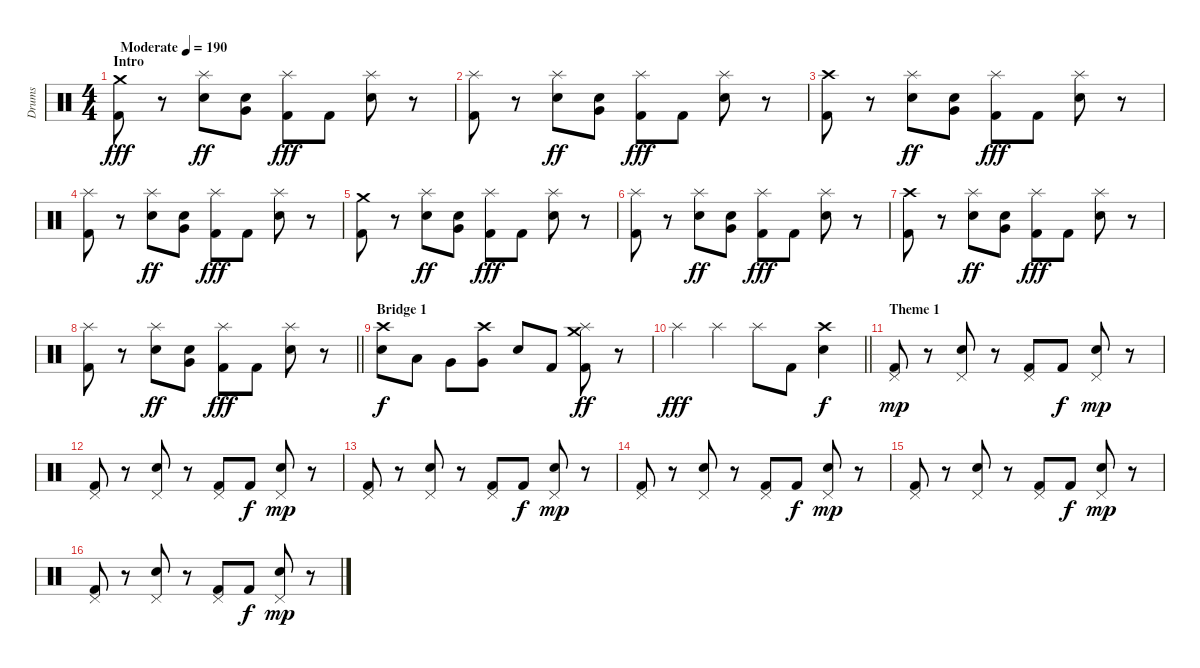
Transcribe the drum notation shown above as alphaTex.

\track ("Drums" "Drums") {instrument percussion}
\staff {score}
\articulation defaults
\ts (4 4)
\section ("" "Intro")
\tempo (190 "Moderate")
\clef neutral
\ks c
("Crash medium (hit)" "Kick (hit) 2").8{dy fff} r.8 ("Splash (hit)" "Electric Snare (hit)").8{dy ff} ("Electric Snare (hit)" "Very Low Tom (hit)").8 ("Splash (hit)" "Kick (hit) 2").8{dy fff} "Kick (hit) 2".8 ("Splash (hit)" "Electric Snare (hit)").8 r.8 |
("Splash (hit)" "Kick (hit) 2").8 r.8 ("Splash (hit)" "Electric Snare (hit)").8{dy ff} ("Electric Snare (hit)" "Very Low Tom (hit)").8 ("Splash (hit)" "Kick (hit) 2").8{dy fff} "Kick (hit) 2".8 ("Splash (hit)" "Electric Snare (hit)").8 r.8 |
("Crash high (hit)" "Kick (hit) 2").8 r.8 ("Splash (hit)" "Electric Snare (hit)").8{dy ff} ("Electric Snare (hit)" "Very Low Tom (hit)").8 ("Splash (hit)" "Kick (hit) 2").8{dy fff} "Kick (hit) 2".8 ("Splash (hit)" "Electric Snare (hit)").8 r.8 |
("Splash (hit)" "Kick (hit) 2").8 r.8 ("Splash (hit)" "Electric Snare (hit)").8{dy ff} ("Electric Snare (hit)" "Very Low Tom (hit)").8 ("Splash (hit)" "Kick (hit) 2").8{dy fff} "Kick (hit) 2".8 ("Splash (hit)" "Electric Snare (hit)").8 r.8 |
("Crash medium (hit)" "Kick (hit) 2").8 r.8 ("Splash (hit)" "Electric Snare (hit)").8{dy ff} ("Electric Snare (hit)" "Very Low Tom (hit)").8 ("Splash (hit)" "Kick (hit) 2").8{dy fff} "Kick (hit) 2".8 ("Splash (hit)" "Electric Snare (hit)").8 r.8 |
("Splash (hit)" "Kick (hit) 2").8 r.8 ("Splash (hit)" "Electric Snare (hit)").8{dy ff} ("Electric Snare (hit)" "Very Low Tom (hit)").8 ("Splash (hit)" "Kick (hit) 2").8{dy fff} "Kick (hit) 2".8 ("Splash (hit)" "Electric Snare (hit)").8 r.8 |
("Crash high (hit)" "Kick (hit) 2").8 r.8 ("Splash (hit)" "Electric Snare (hit)").8{dy ff} ("Electric Snare (hit)" "Very Low Tom (hit)").8 ("Splash (hit)" "Kick (hit) 2").8{dy fff} "Kick (hit) 2".8 ("Splash (hit)" "Electric Snare (hit)").8 r.8 |
\barLineRight lightlight
("Splash (hit)" "Kick (hit) 2").8 r.8 ("Splash (hit)" "Electric Snare (hit)").8{dy ff} ("Electric Snare (hit)" "Very Low Tom (hit)").8 ("Splash (hit)" "Kick (hit) 2").8{dy fff} "Kick (hit) 2".8 ("Splash (hit)" "Electric Snare (hit)").8 r.8 |
\section ("" "Bridge 1")
("Crash high (hit)" "Electric Snare (hit)").8{dy f} "Low Tom (hit)".8 "Very Low Tom (hit)".8 ("Crash high (hit)" "Very Low Tom (hit)").8 "Electric Snare (hit)".8 "Kick (hit) 2".8 ("Crash medium (hit)" "Splash (hit)" "Kick (hit) 2").8{dy ff} r.8 |
\barLineRight lightlight "Splash (hit)".4{dy fff} "Splash (hit)".4 "Splash (hit)".8 "Kick (hit) 2".8
("Crash high (hit)" "Electric Snare (hit)").4{dy f} |
\section ("" "Theme 1")
("Pedal Hi-Hat (hit)" "Kick (hit) 2").8{dy mp} r.8 ("Pedal Hi-Hat (hit)" "Electric Snare (hit)").8 r.8 ("Pedal Hi-Hat (hit)" "Kick (hit) 2").8 "Kick (hit) 2".8{dy f} ("Pedal Hi-Hat (hit)" "Electric Snare (hit)").8{dy mp} r.8 |
("Pedal Hi-Hat (hit)" "Kick (hit) 2").8 r.8 ("Pedal Hi-Hat (hit)" "Electric Snare (hit)").8 r.8 ("Pedal Hi-Hat (hit)" "Kick (hit) 2").8 "Kick (hit) 2".8{dy f} ("Pedal Hi-Hat (hit)" "Electric Snare (hit)").8{dy mp} r.8 |
("Pedal Hi-Hat (hit)" "Kick (hit) 2").8 r.8 ("Pedal Hi-Hat (hit)" "Electric Snare (hit)").8 r.8 ("Pedal Hi-Hat (hit)" "Kick (hit) 2").8 "Kick (hit) 2".8{dy f} ("Pedal Hi-Hat (hit)" "Electric Snare (hit)").8{dy mp} r.8 |
("Pedal Hi-Hat (hit)" "Kick (hit) 2").8 r.8 ("Pedal Hi-Hat (hit)" "Electric Snare (hit)").8 r.8 ("Pedal Hi-Hat (hit)" "Kick (hit) 2").8 "Kick (hit) 2".8{dy f} ("Pedal Hi-Hat (hit)" "Electric Snare (hit)").8{dy mp} r.8 |
("Pedal Hi-Hat (hit)" "Kick (hit) 2").8 r.8 ("Pedal Hi-Hat (hit)" "Electric Snare (hit)").8 r.8 ("Pedal Hi-Hat (hit)" "Kick (hit) 2").8 "Kick (hit) 2".8{dy f} ("Pedal Hi-Hat (hit)" "Electric Snare (hit)").8{dy mp} r.8 |
("Pedal Hi-Hat (hit)" "Kick (hit) 2").8 r.8 ("Pedal Hi-Hat (hit)" "Electric Snare (hit)").8 r.8 ("Pedal Hi-Hat (hit)" "Kick (hit) 2").8 "Kick (hit) 2".8{dy f} ("Pedal Hi-Hat (hit)" "Electric Snare (hit)").8{dy mp} r.8
